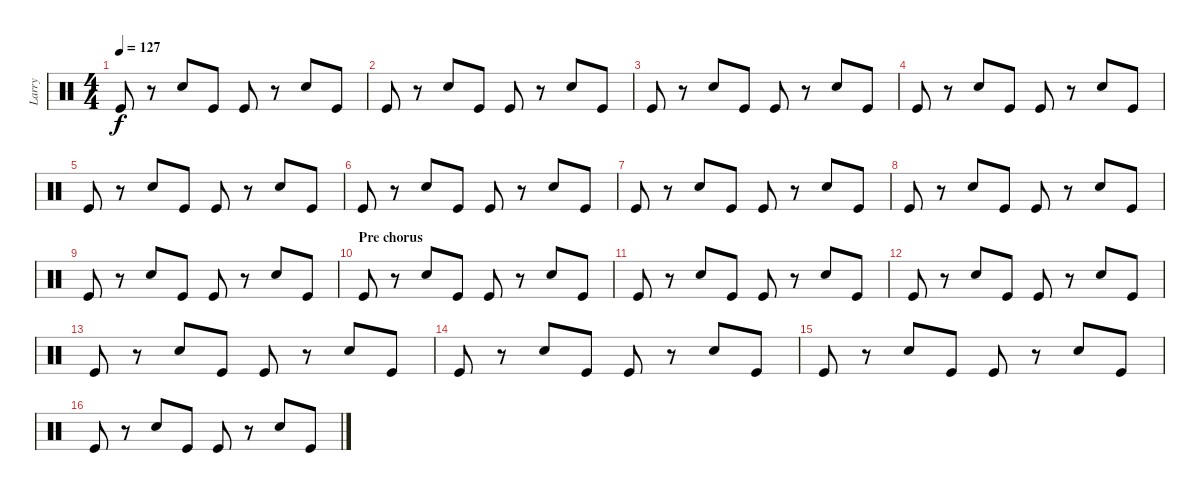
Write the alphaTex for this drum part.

\track ("Larry" "Larry") {instrument percussion}
\staff {score}
\articulation defaults
\ts (4 4)
\tempo 127
\clef neutral
\ks c "Kick (hit)".8{dy f}
r.8 "Snare (hit) 2".8 "Kick (hit)".8 "Kick (hit)".8 r.8 "Snare (hit) 2".8 "Kick (hit)".8 |
"Kick (hit)".8 r.8 "Snare (hit) 2".8 "Kick (hit)".8 "Kick (hit)".8 r.8 "Snare (hit) 2".8 "Kick (hit)".8 |
"Kick (hit)".8 r.8 "Snare (hit) 2".8 "Kick (hit)".8 "Kick (hit)".8 r.8 "Snare (hit) 2".8 "Kick (hit)".8 |
"Kick (hit)".8 r.8 "Snare (hit) 2".8 "Kick (hit)".8 "Kick (hit)".8 r.8 "Snare (hit) 2".8 "Kick (hit)".8 |
"Kick (hit)".8 r.8 "Snare (hit) 2".8 "Kick (hit)".8 "Kick (hit)".8 r.8 "Snare (hit) 2".8 "Kick (hit)".8 |
"Kick (hit)".8 r.8 "Snare (hit) 2".8 "Kick (hit)".8 "Kick (hit)".8 r.8 "Snare (hit) 2".8 "Kick (hit)".8 |
"Kick (hit)".8 r.8 "Snare (hit) 2".8 "Kick (hit)".8 "Kick (hit)".8 r.8 "Snare (hit) 2".8 "Kick (hit)".8 |
"Kick (hit)".8 r.8 "Snare (hit) 2".8 "Kick (hit)".8 "Kick (hit)".8 r.8 "Snare (hit) 2".8 "Kick (hit)".8 |
"Kick (hit)".8 r.8 "Snare (hit) 2".8 "Kick (hit)".8 "Kick (hit)".8 r.8 "Snare (hit) 2".8 "Kick (hit)".8 |
\section ("" "Pre chorus")
"Kick (hit)".8 r.8 "Snare (hit) 2".8 "Kick (hit)".8 "Kick (hit)".8 r.8 "Snare (hit) 2".8 "Kick (hit)".8 |
"Kick (hit)".8 r.8 "Snare (hit) 2".8 "Kick (hit)".8 "Kick (hit)".8 r.8 "Snare (hit) 2".8 "Kick (hit)".8 |
"Kick (hit)".8 r.8 "Snare (hit) 2".8 "Kick (hit)".8 "Kick (hit)".8 r.8 "Snare (hit) 2".8 "Kick (hit)".8 |
"Kick (hit)".8 r.8 "Snare (hit) 2".8 "Kick (hit)".8 "Kick (hit)".8 r.8 "Snare (hit) 2".8 "Kick (hit)".8 |
"Kick (hit)".8 r.8 "Snare (hit) 2".8 "Kick (hit)".8 "Kick (hit)".8 r.8 "Snare (hit) 2".8 "Kick (hit)".8 |
"Kick (hit)".8 r.8 "Snare (hit) 2".8 "Kick (hit)".8 "Kick (hit)".8 r.8 "Snare (hit) 2".8 "Kick (hit)".8 |
"Kick (hit)".8 r.8 "Snare (hit) 2".8 "Kick (hit)".8 "Kick (hit)".8 r.8 "Snare (hit) 2".8 "Kick (hit)".8
